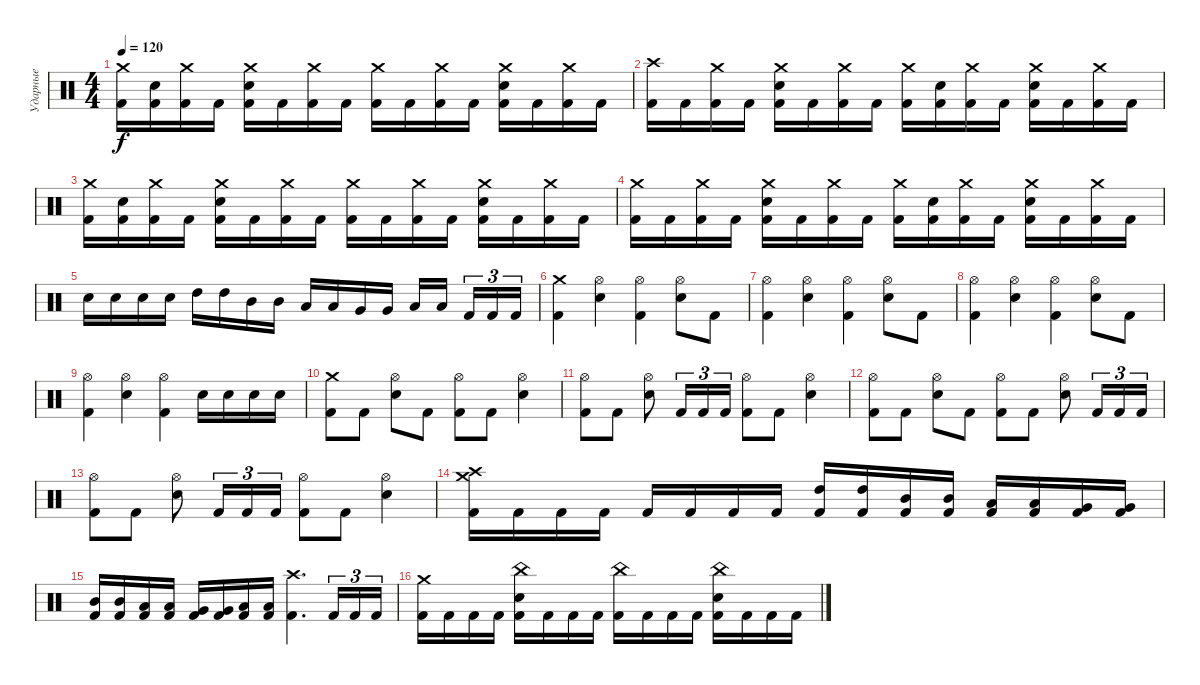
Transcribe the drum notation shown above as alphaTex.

\track ("Ударные" "Ударные") {instrument percussion}
\staff {score}
\articulation defaults
\ts (4 4)
\tempo 120
\clef neutral
\ks c
("Crash medium (hit)" "Kick (hit) 2").16{dy f} ("Electric Snare (hit)" "Kick (hit) 2").16 ("Crash medium (hit)" "Kick (hit) 2").16 "Kick (hit) 2".16 ("Crash medium (hit)" "Electric Snare (hit)" "Kick (hit) 2").16 "Kick (hit) 2".16 ("Crash medium (hit)" "Kick (hit) 2").16 "Kick (hit) 2".16 ("Crash medium (hit)" "Kick (hit) 2").16 "Kick (hit) 2".16 ("Crash medium (hit)" "Kick (hit) 2").16 "Kick (hit) 2".16 ("Crash medium (hit)" "Electric Snare (hit)" "Kick (hit) 2").16 "Kick (hit) 2".16 ("Crash medium (hit)" "Kick (hit) 2").16 "Kick (hit) 2".16 |
("Crash high (hit)" "Kick (hit) 2").16 "Kick (hit) 2".16 ("Crash medium (hit)" "Kick (hit) 2").16 "Kick (hit) 2".16 ("Crash medium (hit)" "Electric Snare (hit)" "Kick (hit) 2").16 "Kick (hit) 2".16 ("Crash medium (hit)" "Kick (hit) 2").16 "Kick (hit) 2".16 ("Crash medium (hit)" "Kick (hit) 2").16 ("Electric Snare (hit)" "Kick (hit) 2").16 ("Crash medium (hit)" "Kick (hit) 2").16 "Kick (hit) 2".16 ("Crash medium (hit)" "Electric Snare (hit)" "Kick (hit) 2").16 "Kick (hit) 2".16 ("Crash medium (hit)" "Kick (hit) 2").16 "Kick (hit) 2".16 |
("Crash medium (hit)" "Kick (hit) 2").16 ("Electric Snare (hit)" "Kick (hit) 2").16 ("Crash medium (hit)" "Kick (hit) 2").16 "Kick (hit) 2".16 ("Crash medium (hit)" "Electric Snare (hit)" "Kick (hit) 2").16 "Kick (hit) 2".16 ("Crash medium (hit)" "Kick (hit) 2").16 "Kick (hit) 2".16 ("Crash medium (hit)" "Kick (hit) 2").16 "Kick (hit) 2".16 ("Crash medium (hit)" "Kick (hit) 2").16 "Kick (hit) 2".16 ("Crash medium (hit)" "Electric Snare (hit)" "Kick (hit) 2").16 "Kick (hit) 2".16 ("Crash medium (hit)" "Kick (hit) 2").16 "Kick (hit) 2".16 |
("Crash medium (hit)" "Kick (hit) 2").16 "Kick (hit) 2".16 ("Crash medium (hit)" "Kick (hit) 2").16 "Kick (hit) 2".16 ("Crash medium (hit)" "Electric Snare (hit)" "Kick (hit) 2").16 "Kick (hit) 2".16 ("Crash medium (hit)" "Kick (hit) 2").16 "Kick (hit) 2".16 ("Crash medium (hit)" "Kick (hit) 2").16 ("Electric Snare (hit)" "Kick (hit) 2").16 ("Crash medium (hit)" "Kick (hit) 2").16 "Kick (hit) 2".16 ("Crash medium (hit)" "Electric Snare (hit)" "Kick (hit) 2").16 "Kick (hit) 2".16 ("Crash medium (hit)" "Kick (hit) 2").16 "Kick (hit) 2".16 |
"Electric Snare (hit)".16 "Electric Snare (hit)".16 "Electric Snare (hit)".16 "Electric Snare (hit)".16 "High Tom (hit)".16 "High Tom (hit)".16 "Mid Tom (hit)".16 "Mid Tom (hit)".16 "Low Tom (hit)".16 "Low Tom (hit)".16 "Very Low Tom (hit)".16 "Very Low Tom (hit)".16 "Low Floor Tom (hit)".16 "Low Floor Tom (hit)".16{beam splitsecondary} "Kick (hit) 2".16{tu (3 2)} "Kick (hit) 2".16{tu (3 2)} "Kick (hit) 2".16{tu (3 2)} |
("Crash medium (hit)" "Kick (hit) 2").4 ("Hi-Hat (open)" "Electric Snare (hit)").4 ("Hi-Hat (open)" "Kick (hit) 2").4 ("Hi-Hat (open)" "Electric Snare (hit)").8 "Kick (hit) 2".8 |
("Hi-Hat (open)" "Kick (hit) 2").4 ("Hi-Hat (open)" "Electric Snare (hit)").4 ("Hi-Hat (open)" "Kick (hit) 2").4 ("Hi-Hat (open)" "Electric Snare (hit)").8 "Kick (hit) 2".8 |
("Hi-Hat (open)" "Kick (hit) 2").4 ("Hi-Hat (open)" "Electric Snare (hit)").4 ("Hi-Hat (open)" "Kick (hit) 2").4 ("Hi-Hat (open)" "Electric Snare (hit)").8 "Kick (hit) 2".8 |
("Hi-Hat (open)" "Kick (hit) 2").4 ("Hi-Hat (open)" "Electric Snare (hit)").4 ("Hi-Hat (open)" "Kick (hit) 2").4 "Electric Snare (hit)".16 "Electric Snare (hit)".16 "Electric Snare (hit)".16 "Electric Snare (hit)".16 |
("Crash medium (hit)" "Kick (hit) 2").8 "Kick (hit) 2".8 ("Hi-Hat (open)" "Electric Snare (hit)").8 "Kick (hit) 2".8 ("Hi-Hat (open)" "Kick (hit) 2").8 "Kick (hit) 2".8 ("Hi-Hat (open)" "Electric Snare (hit)").4 |
("Hi-Hat (open)" "Kick (hit) 2").8 "Kick (hit) 2".8 ("Hi-Hat (open)" "Electric Snare (hit)").8 "Kick (hit) 2".16{tu (3 2)} "Kick (hit) 2".16{tu (3 2)} "Kick (hit) 2".16{tu (3 2)} ("Hi-Hat (open)" "Kick (hit) 2").8 "Kick (hit) 2".8 ("Hi-Hat (open)" "Electric Snare (hit)").4 |
("Hi-Hat (open)" "Kick (hit) 2").8 "Kick (hit) 2".8 ("Hi-Hat (open)" "Electric Snare (hit)").8 "Kick (hit) 2".8 ("Hi-Hat (open)" "Kick (hit) 2").8 "Kick (hit) 2".8 ("Hi-Hat (open)" "Electric Snare (hit)").8 "Kick (hit) 2".16{tu (3 2)} "Kick (hit) 2".16{tu (3 2)} "Kick (hit) 2".16{tu (3 2)} |
("Hi-Hat (open)" "Kick (hit) 2").8 "Kick (hit) 2".8 ("Hi-Hat (open)" "Electric Snare (hit)").8 "Kick (hit) 2".16{tu (3 2)} "Kick (hit) 2".16{tu (3 2)} "Kick (hit) 2".16{tu (3 2)} ("Hi-Hat (open)" "Kick (hit) 2").8 "Kick (hit) 2".8 ("Hi-Hat (open)" "Electric Snare (hit)").4 |
("Crash medium (hit)" "Crash high (hit)" "Kick (hit) 2").16 "Kick (hit) 2".16 "Kick (hit) 2".16 "Kick (hit) 2".16 "Kick (hit) 2".16 "Kick (hit) 2".16 "Kick (hit) 2".16 "Kick (hit) 2".16 ("High Tom (hit)" "Kick (hit) 2").16 ("High Tom (hit)" "Kick (hit) 2").16 ("Mid Tom (hit)" "Kick (hit) 2").16 ("Mid Tom (hit)" "Kick (hit) 2").16 ("Low Tom (hit)" "Kick (hit) 2").16 ("Low Tom (hit)" "Kick (hit) 2").16 ("Very Low Tom (hit)" "Kick (hit) 2").16 ("Very Low Tom (hit)" "Kick (hit) 2").16 |
("Mid Tom (hit)" "Kick (hit) 2").16 ("Mid Tom (hit)" "Kick (hit) 2").16 ("Low Tom (hit)" "Kick (hit) 2").16 ("Low Tom (hit)" "Kick (hit) 2").16 ("Very Low Tom (hit)" "Kick (hit) 2").16 ("Very Low Tom (hit)" "Kick (hit) 2").16 ("Low Floor Tom (hit)" "Kick (hit) 2").16 ("Low Floor Tom (hit)" "Kick (hit) 2").16 ("Crash high (hit)" "Kick (hit) 2").4{d} "Kick (hit) 2".16{tu (3 2)} "Kick (hit) 2".16{tu (3 2)} "Kick (hit) 2".16{tu (3 2)} |
("Crash medium (hit)" "Kick (hit) 2").16 "Kick (hit) 2".16 "Kick (hit) 2".16 "Kick (hit) 2".16 ("China (hit)" "Electric Snare (hit)" "Kick (hit) 2").16 "Kick (hit) 2".16 "Kick (hit) 2".16 "Kick (hit) 2".16 ("China (hit)" "Kick (hit) 2").16 "Kick (hit) 2".16 "Kick (hit) 2".16 "Kick (hit) 2".16 ("China (hit)" "Electric Snare (hit)" "Kick (hit) 2").16 "Kick (hit) 2".16 "Kick (hit) 2".16 "Kick (hit) 2".16
